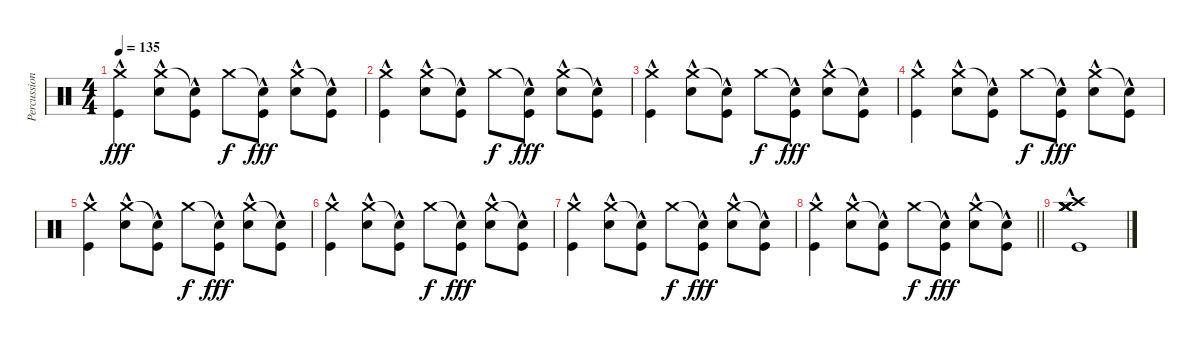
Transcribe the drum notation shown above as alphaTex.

\track ("Percussions" "Percussion") {instrument percussion}
\staff {score}
\articulation defaults
\ts (4 4)
\tempo 135
\clef neutral
\ks c
("Crash medium (hit)"{hac} "Kick (hit)"{hac}).4{dy fff} ("Crash medium (hit)" "Electric Snare (hit)"{hac}).8 ("Snare (hit)"{t} "Kick (hit)"{hac}).8 "Crash medium (hit)".8{dy f} ("Snare (hit)"{t} "Kick (hit)"{hac}).8{dy fff} ("Crash medium (hit)" "Electric Snare (hit)"{hac}).8 ("Snare (hit)"{t} "Kick (hit)"{hac}).8 |
("Crash medium (hit)" "Kick (hit)"{hac}).4 ("Crash medium (hit)" "Electric Snare (hit)"{hac}).8 ("Snare (hit)"{t} "Kick (hit)"{hac}).8 "Crash medium (hit)".8{dy f} ("Snare (hit)"{t} "Kick (hit)"{hac}).8{dy fff} ("Crash medium (hit)" "Electric Snare (hit)"{hac}).8 ("Snare (hit)"{t} "Kick (hit)"{hac}).8 |
("Crash medium (hit)" "Kick (hit)"{hac}).4 ("Crash medium (hit)" "Electric Snare (hit)"{hac}).8 ("Snare (hit)"{t} "Kick (hit)"{hac}).8 "Crash medium (hit)".8{dy f} ("Snare (hit)"{t} "Kick (hit)"{hac}).8{dy fff} ("Crash medium (hit)" "Electric Snare (hit)"{hac}).8 ("Snare (hit)"{t} "Kick (hit)"{hac}).8 |
("Crash medium (hit)" "Kick (hit)"{hac}).4 ("Crash medium (hit)" "Electric Snare (hit)"{hac}).8 ("Snare (hit)"{t} "Kick (hit)"{hac}).8 "Crash medium (hit)".8{dy f} ("Snare (hit)"{t} "Kick (hit)"{hac}).8{dy fff} ("Crash medium (hit)" "Electric Snare (hit)"{hac}).8 ("Snare (hit)"{t} "Kick (hit)"{hac}).8 |
("Crash medium (hit)"{hac} "Kick (hit)"{hac}).4 ("Crash medium (hit)" "Electric Snare (hit)"{hac}).8 ("Snare (hit)"{t} "Kick (hit)"{hac}).8 "Crash medium (hit)".8{dy f} ("Snare (hit)"{t} "Kick (hit)"{hac}).8{dy fff} ("Crash medium (hit)" "Electric Snare (hit)"{hac}).8 ("Snare (hit)"{t} "Kick (hit)"{hac}).8 |
("Crash medium (hit)" "Kick (hit)"{hac}).4 ("Crash medium (hit)" "Electric Snare (hit)"{hac}).8 ("Snare (hit)"{t} "Kick (hit)"{hac}).8 "Crash medium (hit)".8{dy f} ("Snare (hit)"{t} "Kick (hit)"{hac}).8{dy fff} ("Crash medium (hit)" "Electric Snare (hit)"{hac}).8 ("Snare (hit)"{t} "Kick (hit)"{hac}).8 |
("Crash medium (hit)" "Kick (hit)"{hac}).4 ("Crash medium (hit)" "Electric Snare (hit)"{hac}).8 ("Snare (hit)"{t} "Kick (hit)"{hac}).8 "Crash medium (hit)".8{dy f} ("Snare (hit)"{t} "Kick (hit)"{hac}).8{dy fff} ("Crash medium (hit)" "Electric Snare (hit)"{hac}).8 ("Snare (hit)"{t} "Kick (hit)"{hac}).8 |
\barLineRight lightlight
("Crash medium (hit)" "Kick (hit)"{hac}).4 ("Crash medium (hit)" "Electric Snare (hit)"{hac}).8 ("Snare (hit)"{t} "Kick (hit)"{hac}).8 "Crash medium (hit)".8{dy f} ("Snare (hit)"{t} "Kick (hit)"{hac}).8{dy fff} ("Crash medium (hit)" "Electric Snare (hit)"{hac}).8 ("Snare (hit)"{t} "Kick (hit)"{hac}).8 |
("Crash medium (hit)"{hac} "Crash medium (hit)"{hac} "Kick (hit)"{hac} "Crash medium (hit)"{hac} "Crash high (hit)"{hac} "Crash medium (hit)"{hac}).1
